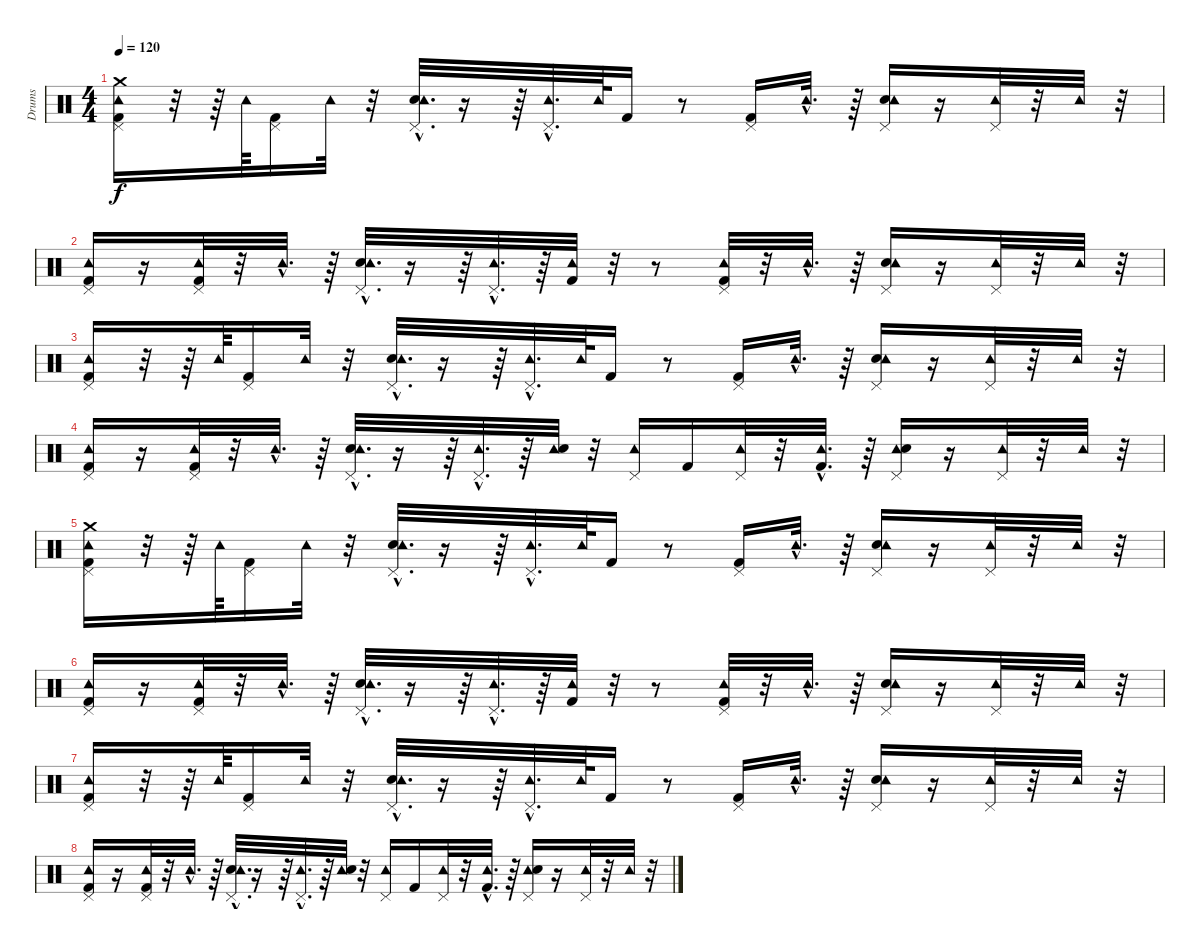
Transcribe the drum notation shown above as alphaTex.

\track ("Drums" "Drums") {instrument percussion}
\staff {score}
\articulation defaults
\ts (4 4)
\tempo 120
\clef neutral
\ks c
("Tambourine (hit)" "Pedal Hi-Hat (hit)" "Kick (hit) 2" "Crash medium (hit)").16{dy f} r.32 r.64 "Tambourine (hit)".64 ("Kick (hit) 2" "Pedal Hi-Hat (hit)").16 "Tambourine (hit)".32 r.32 ("Electric Snare (hit)"{hac} "Pedal Hi-Hat (hit)"{hac} "Tambourine (hit)"{hac}).32{d} r.16 r.64 ("Pedal Hi-Hat (hit)"{hac} "Tambourine (hit)"{hac}).32{d} "Tambourine (hit)".64 "Kick (hit) 2".16 r.8 ("Kick (hit) 2" "Pedal Hi-Hat (hit)").16 "Tambourine (hit)"{hac}.32{d} r.64 ("Electric Snare (hit)" "Pedal Hi-Hat (hit)" "Tambourine (hit)").16 r.16 ("Pedal Hi-Hat (hit)" "Tambourine (hit)").32 r.32 "Tambourine (hit)".32 r.32 |
("Kick (hit) 2" "Pedal Hi-Hat (hit)" "Tambourine (hit)").16 r.16 ("Kick (hit) 2" "Pedal Hi-Hat (hit)" "Tambourine (hit)").32 r.32 "Tambourine (hit)"{hac}.32{d} r.64 ("Electric Snare (hit)"{hac} "Pedal Hi-Hat (hit)"{hac} "Tambourine (hit)"{hac}).32{d} r.16 r.64 ("Pedal Hi-Hat (hit)"{hac} "Tambourine (hit)"{hac}).32{d} r.64 ("Kick (hit) 2" "Tambourine (hit)").32 r.32 r.8 ("Kick (hit) 2" "Pedal Hi-Hat (hit)" "Tambourine (hit)").32 r.32 "Tambourine (hit)"{hac}.32{d} r.64 ("Electric Snare (hit)" "Pedal Hi-Hat (hit)" "Tambourine (hit)").16 r.16 ("Pedal Hi-Hat (hit)" "Tambourine (hit)").32 r.32 "Tambourine (hit)".32 r.32 |
("Kick (hit) 2" "Pedal Hi-Hat (hit)" "Tambourine (hit)").16 r.32 r.64 "Tambourine (hit)".64 ("Kick (hit) 2" "Pedal Hi-Hat (hit)").16 "Tambourine (hit)".32 r.32 ("Electric Snare (hit)"{hac} "Pedal Hi-Hat (hit)"{hac} "Tambourine (hit)"{hac}).32{d} r.16 r.64 ("Pedal Hi-Hat (hit)"{hac} "Tambourine (hit)"{hac}).32{d} "Tambourine (hit)".64 "Kick (hit) 2".16 r.8 ("Kick (hit) 2" "Pedal Hi-Hat (hit)").16 "Tambourine (hit)"{hac}.32{d} r.64 ("Electric Snare (hit)" "Pedal Hi-Hat (hit)" "Tambourine (hit)").16 r.16 ("Pedal Hi-Hat (hit)" "Tambourine (hit)").32 r.32 "Tambourine (hit)".32 r.32 |
("Kick (hit) 2" "Pedal Hi-Hat (hit)" "Tambourine (hit)").16 r.16 ("Kick (hit) 2" "Pedal Hi-Hat (hit)" "Tambourine (hit)").32 r.32 "Tambourine (hit)"{hac}.32{d} r.64 ("Electric Snare (hit)"{hac} "Pedal Hi-Hat (hit)"{hac} "Tambourine (hit)"{hac}).32{d} r.16 r.64 ("Pedal Hi-Hat (hit)"{hac} "Tambourine (hit)"{hac}).32{d} r.64 ("Tambourine (hit)" "Electric Snare (hit)").32 r.32 ("Pedal Hi-Hat (hit)" "Tambourine (hit)").16 "Kick (hit) 2".16 ("Pedal Hi-Hat (hit)" "Tambourine (hit)").32 r.32 ("Tambourine (hit)"{hac} "Kick (hit) 2"{hac}).32{d} r.64 ("Pedal Hi-Hat (hit)" "Tambourine (hit)" "Electric Snare (hit)").16 r.16 ("Pedal Hi-Hat (hit)" "Tambourine (hit)").32 r.32 "Tambourine (hit)".32 r.32 |
("Tambourine (hit)" "Pedal Hi-Hat (hit)" "Kick (hit) 2" "Crash medium (hit)").16 r.32 r.64 "Tambourine (hit)".64 ("Kick (hit) 2" "Pedal Hi-Hat (hit)").16 "Tambourine (hit)".32 r.32 ("Electric Snare (hit)"{hac} "Pedal Hi-Hat (hit)"{hac} "Tambourine (hit)"{hac}).32{d} r.16 r.64 ("Pedal Hi-Hat (hit)"{hac} "Tambourine (hit)"{hac}).32{d} "Tambourine (hit)".64 "Kick (hit) 2".16 r.8 ("Kick (hit) 2" "Pedal Hi-Hat (hit)").16 "Tambourine (hit)"{hac}.32{d} r.64 ("Electric Snare (hit)" "Pedal Hi-Hat (hit)" "Tambourine (hit)").16 r.16 ("Pedal Hi-Hat (hit)" "Tambourine (hit)").32 r.32 "Tambourine (hit)".32 r.32 |
("Kick (hit) 2" "Pedal Hi-Hat (hit)" "Tambourine (hit)").16 r.16 ("Kick (hit) 2" "Pedal Hi-Hat (hit)" "Tambourine (hit)").32 r.32 "Tambourine (hit)"{hac}.32{d} r.64 ("Electric Snare (hit)"{hac} "Pedal Hi-Hat (hit)"{hac} "Tambourine (hit)"{hac}).32{d} r.16 r.64 ("Pedal Hi-Hat (hit)"{hac} "Tambourine (hit)"{hac}).32{d} r.64 ("Kick (hit) 2" "Tambourine (hit)").32 r.32 r.8 ("Kick (hit) 2" "Pedal Hi-Hat (hit)" "Tambourine (hit)").32 r.32 "Tambourine (hit)"{hac}.32{d} r.64 ("Electric Snare (hit)" "Pedal Hi-Hat (hit)" "Tambourine (hit)").16 r.16 ("Pedal Hi-Hat (hit)" "Tambourine (hit)").32 r.32 "Tambourine (hit)".32 r.32 |
("Kick (hit) 2" "Pedal Hi-Hat (hit)" "Tambourine (hit)").16 r.32 r.64 "Tambourine (hit)".64 ("Kick (hit) 2" "Pedal Hi-Hat (hit)").16 "Tambourine (hit)".32 r.32 ("Electric Snare (hit)"{hac} "Pedal Hi-Hat (hit)"{hac} "Tambourine (hit)"{hac}).32{d} r.16 r.64 ("Pedal Hi-Hat (hit)"{hac} "Tambourine (hit)"{hac}).32{d} "Tambourine (hit)".64 "Kick (hit) 2".16 r.8 ("Kick (hit) 2" "Pedal Hi-Hat (hit)").16 "Tambourine (hit)"{hac}.32{d} r.64 ("Electric Snare (hit)" "Pedal Hi-Hat (hit)" "Tambourine (hit)").16 r.16 ("Pedal Hi-Hat (hit)" "Tambourine (hit)").32 r.32 "Tambourine (hit)".32 r.32 |
("Kick (hit) 2" "Pedal Hi-Hat (hit)" "Tambourine (hit)").16 r.16 ("Kick (hit) 2" "Pedal Hi-Hat (hit)" "Tambourine (hit)").32 r.32 "Tambourine (hit)"{hac}.32{d} r.64 ("Electric Snare (hit)"{hac} "Pedal Hi-Hat (hit)"{hac} "Tambourine (hit)"{hac}).32{d} r.16 r.64 ("Pedal Hi-Hat (hit)"{hac} "Tambourine (hit)"{hac}).32{d} r.64 ("Tambourine (hit)" "Electric Snare (hit)").32 r.32 ("Pedal Hi-Hat (hit)" "Tambourine (hit)").16 "Kick (hit) 2".16 ("Pedal Hi-Hat (hit)" "Tambourine (hit)").32 r.32 ("Tambourine (hit)"{hac} "Kick (hit) 2"{hac}).32{d} r.64 ("Pedal Hi-Hat (hit)" "Tambourine (hit)" "Electric Snare (hit)").16 r.16 ("Pedal Hi-Hat (hit)" "Tambourine (hit)").32 r.32 "Tambourine (hit)".32 r.32
